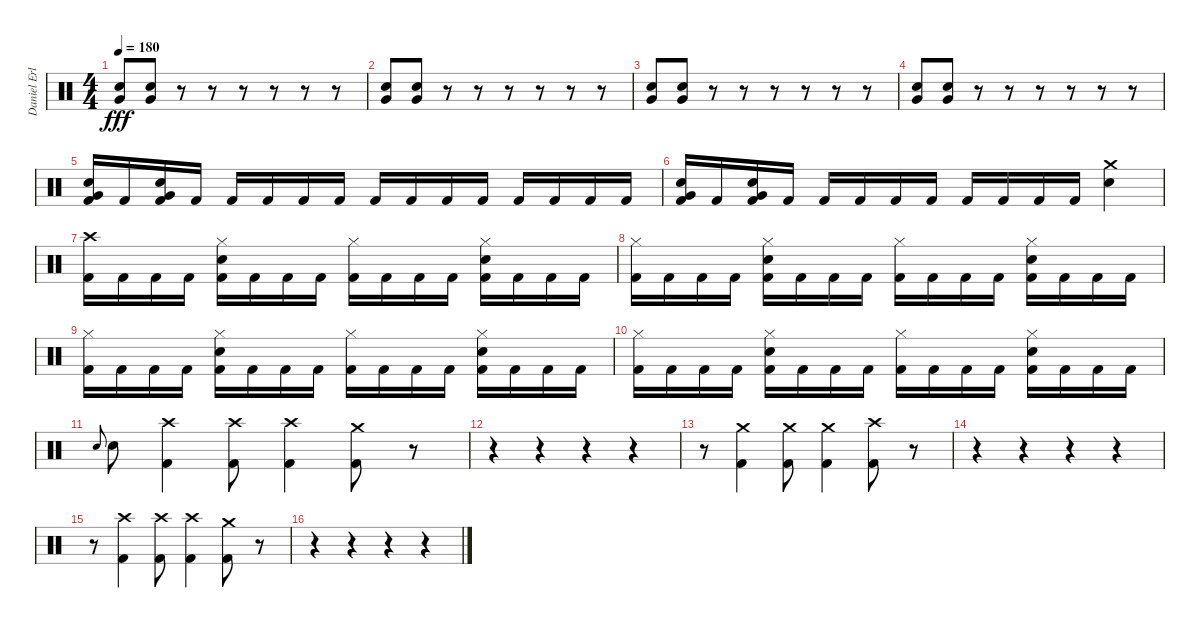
\track ("Daniel Erlandsson" "Daniel Erl") {instrument percussion}
\staff {score}
\articulation defaults
\ts (4 4)
\tempo 180
\clef neutral
\ks c
("Electric Snare (hit)" "Very Low Tom (hit)").8{dy fff} ("Electric Snare (hit)" "Very Low Tom (hit)").8 r.8 r.8 r.8 r.8 r.8 r.8 |
("Electric Snare (hit)" "Very Low Tom (hit)").8 ("Electric Snare (hit)" "Very Low Tom (hit)").8 r.8 r.8 r.8 r.8 r.8 r.8 |
("Electric Snare (hit)" "Very Low Tom (hit)").8 ("Electric Snare (hit)" "Very Low Tom (hit)").8 r.8 r.8 r.8 r.8 r.8 r.8 |
("Electric Snare (hit)" "Very Low Tom (hit)").8 ("Electric Snare (hit)" "Very Low Tom (hit)").8 r.8 r.8 r.8 r.8 r.8 r.8 |
("Electric Snare (hit)" "Very Low Tom (hit)" "Kick (hit) 2").16 "Kick (hit) 2".16 ("Electric Snare (hit)" "Very Low Tom (hit)" "Kick (hit) 2").16 "Kick (hit) 2".16 "Kick (hit) 2".16 "Kick (hit) 2".16 "Kick (hit) 2".16 "Kick (hit) 2".16 "Kick (hit) 2".16 "Kick (hit) 2".16 "Kick (hit) 2".16 "Kick (hit) 2".16 "Kick (hit) 2".16 "Kick (hit) 2".16 "Kick (hit) 2".16 "Kick (hit) 2".16 |
("Electric Snare (hit)" "Very Low Tom (hit)" "Kick (hit) 2").16 "Kick (hit) 2".16 ("Electric Snare (hit)" "Very Low Tom (hit)" "Kick (hit) 2").16 "Kick (hit) 2".16 "Kick (hit) 2".16 "Kick (hit) 2".16 "Kick (hit) 2".16 "Kick (hit) 2".16 "Kick (hit) 2".16 "Kick (hit) 2".16 "Kick (hit) 2".16 "Kick (hit) 2".16 ("Crash medium (hit)" "Electric Snare (hit)").4 |
("Crash high (hit)" "Kick (hit) 2").16 "Kick (hit) 2".16 "Kick (hit) 2".16 "Kick (hit) 2".16 ("Hi-Hat (closed)" "Electric Snare (hit)" "Kick (hit) 2").16 "Kick (hit) 2".16 "Kick (hit) 2".16 "Kick (hit) 2".16 ("Hi-Hat (closed)" "Kick (hit) 2").16 "Kick (hit) 2".16 "Kick (hit) 2".16 "Kick (hit) 2".16 ("Hi-Hat (closed)" "Electric Snare (hit)" "Kick (hit) 2").16 "Kick (hit) 2".16 "Kick (hit) 2".16 "Kick (hit) 2".16 |
("Hi-Hat (closed)" "Kick (hit) 2").16 "Kick (hit) 2".16 "Kick (hit) 2".16 "Kick (hit) 2".16 ("Hi-Hat (closed)" "Electric Snare (hit)" "Kick (hit) 2").16 "Kick (hit) 2".16 "Kick (hit) 2".16 "Kick (hit) 2".16 ("Hi-Hat (closed)" "Kick (hit) 2").16 "Kick (hit) 2".16 "Kick (hit) 2".16 "Kick (hit) 2".16 ("Hi-Hat (closed)" "Electric Snare (hit)" "Kick (hit) 2").16 "Kick (hit) 2".16 "Kick (hit) 2".16 "Kick (hit) 2".16 |
("Hi-Hat (closed)" "Kick (hit) 2").16 "Kick (hit) 2".16 "Kick (hit) 2".16 "Kick (hit) 2".16 ("Hi-Hat (closed)" "Electric Snare (hit)" "Kick (hit) 2").16 "Kick (hit) 2".16 "Kick (hit) 2".16 "Kick (hit) 2".16 ("Hi-Hat (closed)" "Kick (hit) 2").16 "Kick (hit) 2".16 "Kick (hit) 2".16 "Kick (hit) 2".16 ("Hi-Hat (closed)" "Electric Snare (hit)" "Kick (hit) 2").16 "Kick (hit) 2".16 "Kick (hit) 2".16 "Kick (hit) 2".16 |
("Hi-Hat (closed)" "Kick (hit) 2").16 "Kick (hit) 2".16 "Kick (hit) 2".16 "Kick (hit) 2".16 ("Hi-Hat (closed)" "Electric Snare (hit)" "Kick (hit) 2").16 "Kick (hit) 2".16 "Kick (hit) 2".16 "Kick (hit) 2".16 ("Hi-Hat (closed)" "Kick (hit) 2").16 "Kick (hit) 2".16 "Kick (hit) 2".16 "Kick (hit) 2".16 ("Hi-Hat (closed)" "Electric Snare (hit)" "Kick (hit) 2").16 "Kick (hit) 2".16 "Kick (hit) 2".16 "Kick (hit) 2".16 |
"Electric Snare (hit)".8{gr onbeat} "Electric Snare (hit)".8 ("Crash high (hit)" "Kick (hit) 2").4 ("Crash high (hit)" "Kick (hit) 2").8 ("Crash high (hit)" "Kick (hit) 2").4 ("Crash medium (hit)" "Kick (hit) 2").8 r.8 |
r.4{volume 0} r.4 r.4 r.4 |
r.8 ("Crash medium (hit)" "Kick (hit) 2").4{volume 16} ("Crash medium (hit)" "Kick (hit) 2").8 ("Crash medium (hit)" "Kick (hit) 2").4 ("Crash high (hit)" "Kick (hit) 2").8 r.8 |
r.4{volume 0} r.4 r.4 r.4 |
r.8 ("Crash high (hit)" "Kick (hit) 2").4{volume 16} ("Crash high (hit)" "Kick (hit) 2").8 ("Crash high (hit)" "Kick (hit) 2").4 ("Crash medium (hit)" "Kick (hit) 2").8 r.8 |
r.4{volume 0} r.4 r.4 r.4
